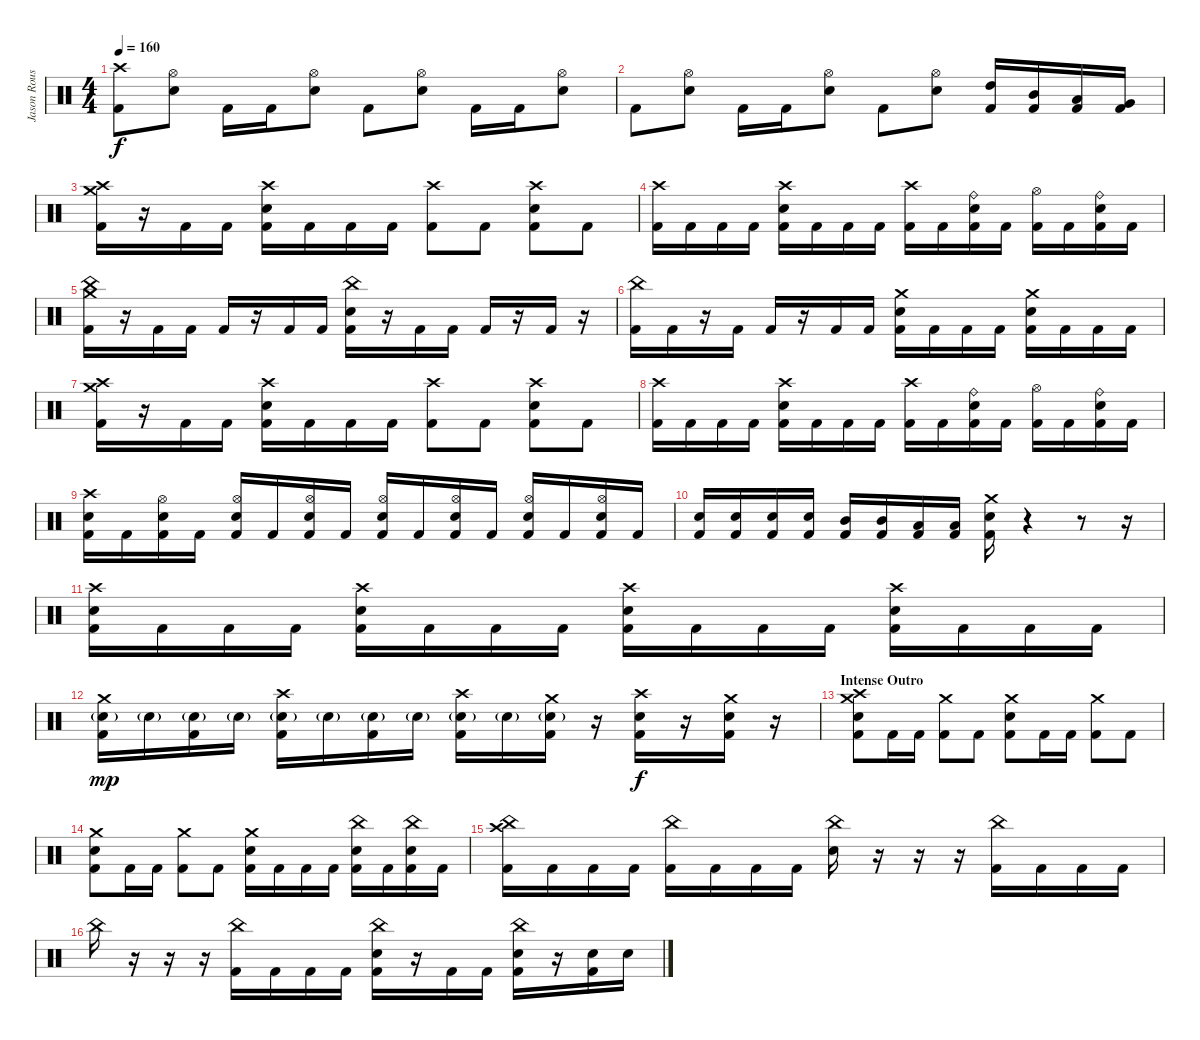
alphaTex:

\track ("Jason Rousseau" "Jason Rous") {instrument percussion}
\staff {score}
\articulation defaults
\ts (4 4)
\tempo 160
\clef neutral
\ks c
("Crash high (hit)" "Kick (hit) 2").8{dy f} ("Hi-Hat (open)" "Electric Snare (hit)").8 "Kick (hit) 2".16 "Kick (hit) 2".16 ("Hi-Hat (open)" "Electric Snare (hit)").8 "Kick (hit) 2".8 ("Hi-Hat (open)" "Electric Snare (hit)").8 "Kick (hit) 2".16 "Kick (hit) 2".16 ("Hi-Hat (open)" "Electric Snare (hit)").8 |
"Kick (hit) 2".8 ("Hi-Hat (open)" "Electric Snare (hit)").8 "Kick (hit) 2".16 "Kick (hit) 2".16 ("Hi-Hat (open)" "Electric Snare (hit)").8 "Kick (hit) 2".8 ("Hi-Hat (open)" "Electric Snare (hit)").8 ("High Tom (hit)" "Kick (hit) 2").16 ("Mid Tom (hit)" "Kick (hit) 2").16 ("Low Tom (hit)" "Kick (hit) 2").16 ("Very Low Tom (hit)" "Kick (hit) 2").16 |
("Crash high (hit)" "Crash medium (hit)" "Kick (hit) 2").16 r.16 "Kick (hit) 2".16 "Kick (hit) 2".16 ("Crash high (hit)" "Electric Snare (hit)" "Kick (hit) 2").16 "Kick (hit) 2".16 "Kick (hit) 2".16 "Kick (hit) 2".16 ("Crash high (hit)" "Kick (hit) 2").8 "Kick (hit) 2".8 ("Crash high (hit)" "Electric Snare (hit)" "Kick (hit) 2").8 "Kick (hit) 2".8 |
("Crash high (hit)" "Kick (hit) 2").16 "Kick (hit) 2".16 "Kick (hit) 2".16 "Kick (hit) 2".16 ("Crash high (hit)" "Electric Snare (hit)" "Kick (hit) 2").16 "Kick (hit) 2".16 "Kick (hit) 2".16 "Kick (hit) 2".16 ("Crash high (hit)" "Kick (hit) 2").16 "Kick (hit) 2".16 ("Ride (bell)" "Electric Snare (hit)" "Kick (hit) 2").16 "Kick (hit) 2".16 ("Hi-Hat (open)" "Kick (hit) 2").16 "Kick (hit) 2".16 ("Ride (bell)" "Electric Snare (hit)" "Kick (hit) 2").16 "Kick (hit) 2".16 |
("Crash medium (hit)" "China (hit)" "Kick (hit) 2").16 r.16 "Kick (hit) 2".16 "Kick (hit) 2".16 "Kick (hit) 2".16 r.16 "Kick (hit) 2".16 "Kick (hit) 2".16 ("China (hit)" "Electric Snare (hit)" "Kick (hit) 2").16 r.16 "Kick (hit) 2".16 "Kick (hit) 2".16 "Kick (hit) 2".16 r.16 "Kick (hit) 2".16 r.16 |
("China (hit)" "Kick (hit) 2").16 "Kick (hit) 2".16 r.16 "Kick (hit) 2".16 "Kick (hit) 2".16 r.16 "Kick (hit) 2".16 "Kick (hit) 2".16 ("Crash medium (hit)" "Electric Snare (hit)" "Kick (hit) 2").16 "Kick (hit) 2".16 "Kick (hit) 2".16 "Kick (hit) 2".16 ("Crash medium (hit)" "Electric Snare (hit)" "Kick (hit) 2").16 "Kick (hit) 2".16 "Kick (hit) 2".16 "Kick (hit) 2".16 |
("Crash high (hit)" "Crash medium (hit)" "Kick (hit) 2").16 r.16 "Kick (hit) 2".16 "Kick (hit) 2".16 ("Crash high (hit)" "Electric Snare (hit)" "Kick (hit) 2").16 "Kick (hit) 2".16 "Kick (hit) 2".16 "Kick (hit) 2".16 ("Crash high (hit)" "Kick (hit) 2").8 "Kick (hit) 2".8 ("Crash high (hit)" "Electric Snare (hit)" "Kick (hit) 2").8 "Kick (hit) 2".8 |
("Crash high (hit)" "Kick (hit) 2").16 "Kick (hit) 2".16 "Kick (hit) 2".16 "Kick (hit) 2".16 ("Crash high (hit)" "Electric Snare (hit)" "Kick (hit) 2").16 "Kick (hit) 2".16 "Kick (hit) 2".16 "Kick (hit) 2".16 ("Crash high (hit)" "Kick (hit) 2").16 "Kick (hit) 2".16 ("Ride (bell)" "Electric Snare (hit)" "Kick (hit) 2").16 "Kick (hit) 2".16 ("Hi-Hat (open)" "Kick (hit) 2").16 "Kick (hit) 2".16 ("Ride (bell)" "Electric Snare (hit)" "Kick (hit) 2").16 "Kick (hit) 2".16 |
("Crash high (hit)" "Electric Snare (hit)" "Kick (hit) 2").16 "Kick (hit) 2".16 ("Hi-Hat (open)" "Electric Snare (hit)" "Kick (hit) 2").16 "Kick (hit) 2".16 ("Hi-Hat (open)" "Electric Snare (hit)" "Kick (hit) 2").16 "Kick (hit) 2".16 ("Hi-Hat (open)" "Electric Snare (hit)" "Kick (hit) 2").16 "Kick (hit) 2".16 ("Hi-Hat (open)" "Electric Snare (hit)" "Kick (hit) 2").16 "Kick (hit) 2".16 ("Hi-Hat (open)" "Electric Snare (hit)" "Kick (hit) 2").16 "Kick (hit) 2".16 ("Hi-Hat (open)" "Electric Snare (hit)" "Kick (hit) 2").16 "Kick (hit) 2".16 ("Hi-Hat (open)" "Electric Snare (hit)" "Kick (hit) 2").16 "Kick (hit) 2".16 |
("Electric Snare (hit)" "Kick (hit) 2").16 ("Electric Snare (hit)" "Kick (hit) 2").16 ("Electric Snare (hit)" "Kick (hit) 2").16 ("Electric Snare (hit)" "Kick (hit) 2").16 ("Mid Tom (hit)" "Kick (hit) 2").16 ("Mid Tom (hit)" "Kick (hit) 2").16 ("Low Tom (hit)" "Kick (hit) 2").16 ("Low Tom (hit)" "Kick (hit) 2").16 ("Crash medium (hit)" "Electric Snare (hit)" "Kick (hit) 2").16 r.4 r.8 r.16 |
("Crash high (hit)" "Electric Snare (hit)" "Kick (hit) 2").16 "Kick (hit) 2".16 "Kick (hit) 2".16 "Kick (hit) 2".16 ("Crash high (hit)" "Electric Snare (hit)" "Kick (hit) 2").16 "Kick (hit) 2".16 "Kick (hit) 2".16 "Kick (hit) 2".16 ("Crash high (hit)" "Electric Snare (hit)" "Kick (hit) 2").16 "Kick (hit) 2".16 "Kick (hit) 2".16 "Kick (hit) 2".16 ("Crash high (hit)" "Electric Snare (hit)" "Kick (hit) 2").16 "Kick (hit) 2".16 "Kick (hit) 2".16 "Kick (hit) 2".16 |
("Crash medium (hit)" "Electric Snare (hit)"{g} "Kick (hit) 2").16{dy mp} "Electric Snare (hit)"{g}.16 ("Electric Snare (hit)"{g} "Kick (hit) 2").16 "Electric Snare (hit)"{g}.16 ("Crash high (hit)" "Electric Snare (hit)"{g} "Kick (hit) 2").16 "Electric Snare (hit)"{g}.16 ("Electric Snare (hit)"{g} "Kick (hit) 2").16 "Electric Snare (hit)"{g}.16 ("Crash high (hit)" "Electric Snare (hit)"{g} "Kick (hit) 2").16 "Electric Snare (hit)"{g}.16 ("Crash medium (hit)" "Electric Snare (hit)"{g} "Kick (hit) 2").16 r.16 ("Crash high (hit)" "Electric Snare (hit)" "Kick (hit) 2").16{dy f} r.16 ("Crash medium (hit)" "Electric Snare (hit)" "Kick (hit) 2").16 r.16 |
\section ("" "Intense Outro")
("Crash high (hit)" "Crash medium (hit)" "Electric Snare (hit)" "Kick (hit) 2").8 "Kick (hit) 2".16 "Kick (hit) 2".16 ("Crash medium (hit)" "Kick (hit) 2").8 "Kick (hit) 2".8 ("Crash medium (hit)" "Electric Snare (hit)" "Kick (hit) 2").8 "Kick (hit) 2".16 "Kick (hit) 2".16 ("Crash medium (hit)" "Kick (hit) 2").8 "Kick (hit) 2".8 |
("Crash medium (hit)" "Electric Snare (hit)" "Kick (hit) 2").8 "Kick (hit) 2".16 "Kick (hit) 2".16 ("Crash medium (hit)" "Kick (hit) 2").8 "Kick (hit) 2".8 ("Crash medium (hit)" "Electric Snare (hit)" "Kick (hit) 2").16 "Kick (hit) 2".16 "Kick (hit) 2".16 "Kick (hit) 2".16 ("China (hit)" "Electric Snare (hit)" "Kick (hit) 2").16 "Kick (hit) 2".16 ("China (hit)" "Electric Snare (hit)" "Kick (hit) 2").16 "Kick (hit) 2".16 |
("Crash high (hit)" "China (hit)" "Kick (hit) 2").16 "Kick (hit) 2".16 "Kick (hit) 2".16 "Kick (hit) 2".16 ("China (hit)" "Kick (hit) 2").16 "Kick (hit) 2".16 "Kick (hit) 2".16 "Kick (hit) 2".16 ("China (hit)" "Electric Snare (hit)").16 r.16 r.16 r.16 ("China (hit)" "Kick (hit) 2").16 "Kick (hit) 2".16 "Kick (hit) 2".16 "Kick (hit) 2".16 |
"China (hit)".16 r.16 r.16 r.16 ("China (hit)" "Kick (hit) 2").16 "Kick (hit) 2".16 "Kick (hit) 2".16 "Kick (hit) 2".16 ("China (hit)" "Electric Snare (hit)" "Kick (hit) 2").16 r.16 "Kick (hit) 2".16 "Kick (hit) 2".16 ("China (hit)" "Electric Snare (hit)" "Kick (hit) 2").16 r.16 ("Electric Snare (hit)" "Kick (hit) 2").16 "Electric Snare (hit)".16
